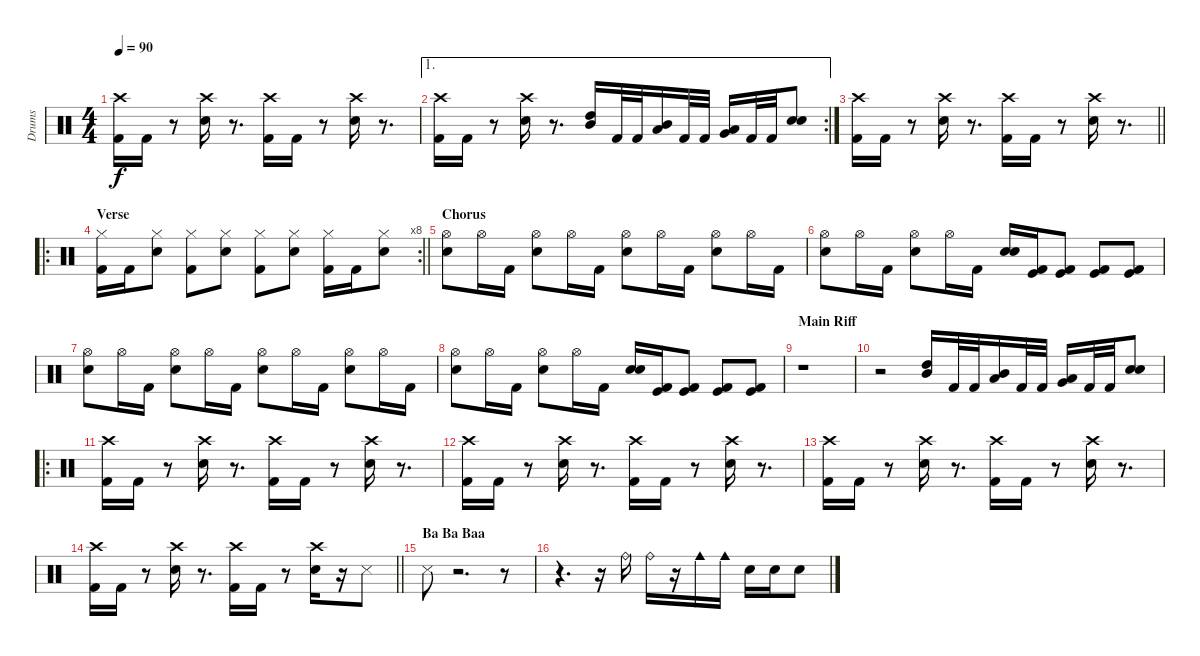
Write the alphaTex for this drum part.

\track ("Drums" "Drums") {instrument percussion}
\staff {score}
\articulation defaults
\ts (4 4)
\tempo 90
\clef neutral
\ks c
("Crash high (hit)" "Kick (hit) 2").16{dy f} "Kick (hit) 2".16 r.8 ("Crash high (hit)" "Electric Snare (hit)").16 r.8{d} ("Crash high (hit)" "Kick (hit) 2").16 "Kick (hit) 2".16 r.8 ("Crash high (hit)" "Electric Snare (hit)").16 r.8{d} |
\ae 1
\rc 2
("Crash high (hit)" "Kick (hit) 2").16 "Kick (hit) 2".16 r.8 ("Crash high (hit)" "Electric Snare (hit)").16 r.8{d} ("High Tom (hit)" "Mid Tom (hit)").16 "Kick (hit) 2".32 "Kick (hit) 2".32 ("Mid Tom (hit)" "Low Tom (hit)").16 "Kick (hit) 2".32 "Kick (hit) 2".32 ("Low Tom (hit)" "Very Low Tom (hit)").16 "Kick (hit) 2".32 "Kick (hit) 2".32 ("Electric Snare (hit)" "Snare (hit) 2").8{bd 120} |
\barLineRight lightlight
("Crash high (hit)" "Kick (hit) 2").16 "Kick (hit) 2".16 r.8 ("Crash high (hit)" "Electric Snare (hit)").16 r.8{d} ("Crash high (hit)" "Kick (hit) 2").16 "Kick (hit) 2".16 r.8 ("Crash high (hit)" "Electric Snare (hit)").16 r.8{d} |
\ro
\rc 8
\section ("" "Verse")
\barLineRight lightlight
("Hi-Hat (closed)" "Kick (hit) 2").16 "Kick (hit) 2".16 ("Hi-Hat (closed)" "Electric Snare (hit)").8 ("Hi-Hat (closed)" "Kick (hit) 2").8 ("Hi-Hat (closed)" "Electric Snare (hit)").8 ("Hi-Hat (closed)" "Kick (hit) 2").8 ("Hi-Hat (closed)" "Electric Snare (hit)").8 ("Hi-Hat (closed)" "Kick (hit) 2").16 "Kick (hit) 2".16 ("Hi-Hat (closed)" "Electric Snare (hit)").8 |
\section ("" "Chorus")
("Hi-Hat (open)" "Electric Snare (hit)").8 "Hi-Hat (open)".16 "Kick (hit) 2".16 ("Hi-Hat (open)" "Electric Snare (hit)").8 "Hi-Hat (open)".16 "Kick (hit) 2".16 ("Hi-Hat (open)" "Electric Snare (hit)").8 "Hi-Hat (open)".16 "Kick (hit) 2".16 ("Hi-Hat (open)" "Electric Snare (hit)").8 "Hi-Hat (open)".16 "Kick (hit) 2".16 |
("Hi-Hat (open)" "Electric Snare (hit)").8 "Hi-Hat (open)".16 "Kick (hit) 2".16 ("Hi-Hat (open)" "Electric Snare (hit)").8 "Hi-Hat (open)".16 "Kick (hit) 2".16 ("Electric Snare (hit)" "Snare (hit) 2").16{bd 240} ("Kick (hit)" "Kick (hit) 2").16 ("Kick (hit)" "Kick (hit) 2").8 ("Kick (hit)" "Kick (hit) 2").8 ("Kick (hit)" "Kick (hit) 2").8 |
("Hi-Hat (open)" "Electric Snare (hit)").8 "Hi-Hat (open)".16 "Kick (hit) 2".16 ("Hi-Hat (open)" "Electric Snare (hit)").8 "Hi-Hat (open)".16 "Kick (hit) 2".16 ("Hi-Hat (open)" "Electric Snare (hit)").8 "Hi-Hat (open)".16 "Kick (hit) 2".16 ("Hi-Hat (open)" "Electric Snare (hit)").8 "Hi-Hat (open)".16 "Kick (hit) 2".16 |
("Hi-Hat (open)" "Electric Snare (hit)").8 "Hi-Hat (open)".16 "Kick (hit) 2".16 ("Hi-Hat (open)" "Electric Snare (hit)").8 "Hi-Hat (open)".16 "Kick (hit) 2".16 ("Electric Snare (hit)" "Snare (hit) 2").16{bd 240} ("Kick (hit)" "Kick (hit) 2").16 ("Kick (hit)" "Kick (hit) 2").8 ("Kick (hit)" "Kick (hit) 2").8 ("Kick (hit)" "Kick (hit) 2").8 |
\section ("" "Main Riff")
r.1 |
r.2 ("High Tom (hit)" "Mid Tom (hit)").16 "Kick (hit) 2".32 "Kick (hit) 2".32 ("Mid Tom (hit)" "Low Tom (hit)").16 "Kick (hit) 2".32 "Kick (hit) 2".32 ("Low Tom (hit)" "Very Low Tom (hit)").16 "Kick (hit) 2".32 "Kick (hit) 2".32 ("Electric Snare (hit)" "Snare (hit) 2").8{bd 120} |
\ro
("Crash high (hit)" "Kick (hit) 2").16 "Kick (hit) 2".16 r.8 ("Crash high (hit)" "Electric Snare (hit)").16 r.8{d} ("Crash high (hit)" "Kick (hit) 2").16 "Kick (hit) 2".16 r.8 ("Crash high (hit)" "Electric Snare (hit)").16 r.8{d} |
("Crash high (hit)" "Kick (hit) 2").16 "Kick (hit) 2".16 r.8 ("Crash high (hit)" "Electric Snare (hit)").16 r.8{d} ("Crash high (hit)" "Kick (hit) 2").16 "Kick (hit) 2".16 r.8 ("Crash high (hit)" "Electric Snare (hit)").16 r.8{d} |
("Crash high (hit)" "Kick (hit) 2").16 "Kick (hit) 2".16 r.8 ("Crash high (hit)" "Electric Snare (hit)").16 r.8{d} ("Crash high (hit)" "Kick (hit) 2").16 "Kick (hit) 2".16 r.8 ("Crash high (hit)" "Electric Snare (hit)").16 r.8{d} |
\barLineRight lightlight
("Crash high (hit)" "Kick (hit) 2").16 "Kick (hit) 2".16 r.8 ("Crash high (hit)" "Electric Snare (hit)").16 r.8{d} ("Crash high (hit)" "Kick (hit) 2").16 "Kick (hit) 2".16 r.8 ("Crash high (hit)" "Electric Snare (hit)").16 r.16 "Snare (side stick) 3".8 |
\section ("" "Ba Ba Baa")
"Snare (side stick) 3".8 r.2{d} r.8 |
r.4{d} r.16 "Ride (bell)".16 "Ride (bell)".16 r.16 "Cowbell medium (hit)".16 "Cowbell medium (hit)".16 "Electric Snare (hit)".16 "Electric Snare (hit)".16 "Electric Snare (hit)".8
